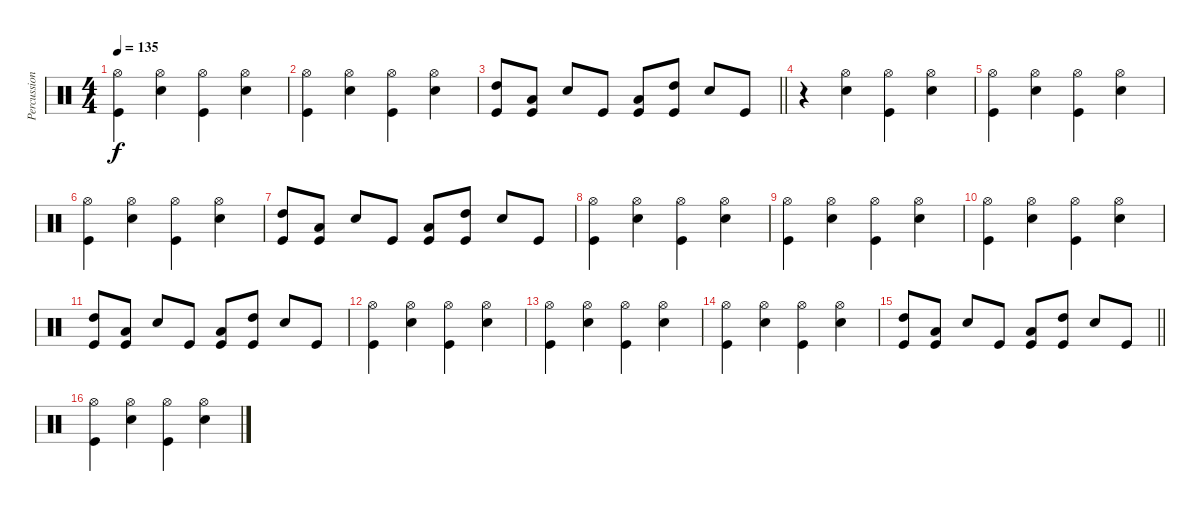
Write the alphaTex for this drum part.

\track ("Percussion" "Percussion") {instrument percussion}
\staff {score}
\articulation defaults
\ts (4 4)
\tempo 135
\clef neutral
\ks c
("Hi-Hat (open)" "Kick (hit)").4{dy f} ("Hi-Hat (open)" "Electric Snare (hit)").4 ("Hi-Hat (open)" "Kick (hit)").4 ("Hi-Hat (open)" "Electric Snare (hit)").4 |
("Hi-Hat (open)" "Kick (hit)").4 ("Hi-Hat (open)" "Electric Snare (hit)").4 ("Hi-Hat (open)" "Kick (hit)").4 ("Hi-Hat (open)" "Electric Snare (hit)").4 |
\barLineRight lightlight
("High Tom (hit)" "Kick (hit)").8 ("Low Tom (hit)" "Kick (hit)").8 "Electric Snare (hit)".8 "Kick (hit)".8 ("Low Tom (hit)" "Kick (hit)").8 ("High Tom (hit)" "Kick (hit)").8 "Electric Snare (hit)".8 "Kick (hit)".8 |
r.4 ("Hi-Hat (open)" "Electric Snare (hit)").4 ("Hi-Hat (open)" "Kick (hit)").4 ("Hi-Hat (open)" "Electric Snare (hit)").4 |
("Hi-Hat (open)" "Kick (hit)").4 ("Hi-Hat (open)" "Electric Snare (hit)").4 ("Hi-Hat (open)" "Kick (hit)").4 ("Hi-Hat (open)" "Electric Snare (hit)").4 |
("Hi-Hat (open)" "Kick (hit)").4 ("Hi-Hat (open)" "Electric Snare (hit)").4 ("Hi-Hat (open)" "Kick (hit)").4 ("Hi-Hat (open)" "Electric Snare (hit)").4 |
("High Tom (hit)" "Kick (hit)").8 ("Low Tom (hit)" "Kick (hit)").8 "Electric Snare (hit)".8 "Kick (hit)".8 ("Low Tom (hit)" "Kick (hit)").8 ("High Tom (hit)" "Kick (hit)").8 "Electric Snare (hit)".8 "Kick (hit)".8 |
("Hi-Hat (open)" "Kick (hit)").4 ("Hi-Hat (open)" "Electric Snare (hit)").4 ("Hi-Hat (open)" "Kick (hit)").4 ("Hi-Hat (open)" "Electric Snare (hit)").4 |
("Hi-Hat (open)" "Kick (hit)").4 ("Hi-Hat (open)" "Electric Snare (hit)").4 ("Hi-Hat (open)" "Kick (hit)").4 ("Hi-Hat (open)" "Electric Snare (hit)").4 |
("Hi-Hat (open)" "Kick (hit)").4 ("Hi-Hat (open)" "Electric Snare (hit)").4 ("Hi-Hat (open)" "Kick (hit)").4 ("Hi-Hat (open)" "Electric Snare (hit)").4 |
("High Tom (hit)" "Kick (hit)").8 ("Low Tom (hit)" "Kick (hit)").8 "Electric Snare (hit)".8 "Kick (hit)".8 ("Low Tom (hit)" "Kick (hit)").8 ("High Tom (hit)" "Kick (hit)").8 "Electric Snare (hit)".8 "Kick (hit)".8 |
("Hi-Hat (open)" "Kick (hit)").4 ("Hi-Hat (open)" "Electric Snare (hit)").4 ("Hi-Hat (open)" "Kick (hit)").4 ("Hi-Hat (open)" "Electric Snare (hit)").4 |
("Hi-Hat (open)" "Kick (hit)").4 ("Hi-Hat (open)" "Electric Snare (hit)").4 ("Hi-Hat (open)" "Kick (hit)").4 ("Hi-Hat (open)" "Electric Snare (hit)").4 |
("Hi-Hat (open)" "Kick (hit)").4 ("Hi-Hat (open)" "Electric Snare (hit)").4 ("Hi-Hat (open)" "Kick (hit)").4 ("Hi-Hat (open)" "Electric Snare (hit)").4 |
\barLineRight lightlight
("High Tom (hit)" "Kick (hit)").8 ("Low Tom (hit)" "Kick (hit)").8 "Electric Snare (hit)".8 "Kick (hit)".8 ("Low Tom (hit)" "Kick (hit)").8 ("High Tom (hit)" "Kick (hit)").8 "Electric Snare (hit)".8 "Kick (hit)".8 |
("Hi-Hat (open)" "Kick (hit)").4 ("Hi-Hat (open)" "Electric Snare (hit)").4 ("Hi-Hat (open)" "Kick (hit)").4 ("Hi-Hat (open)" "Electric Snare (hit)").4
